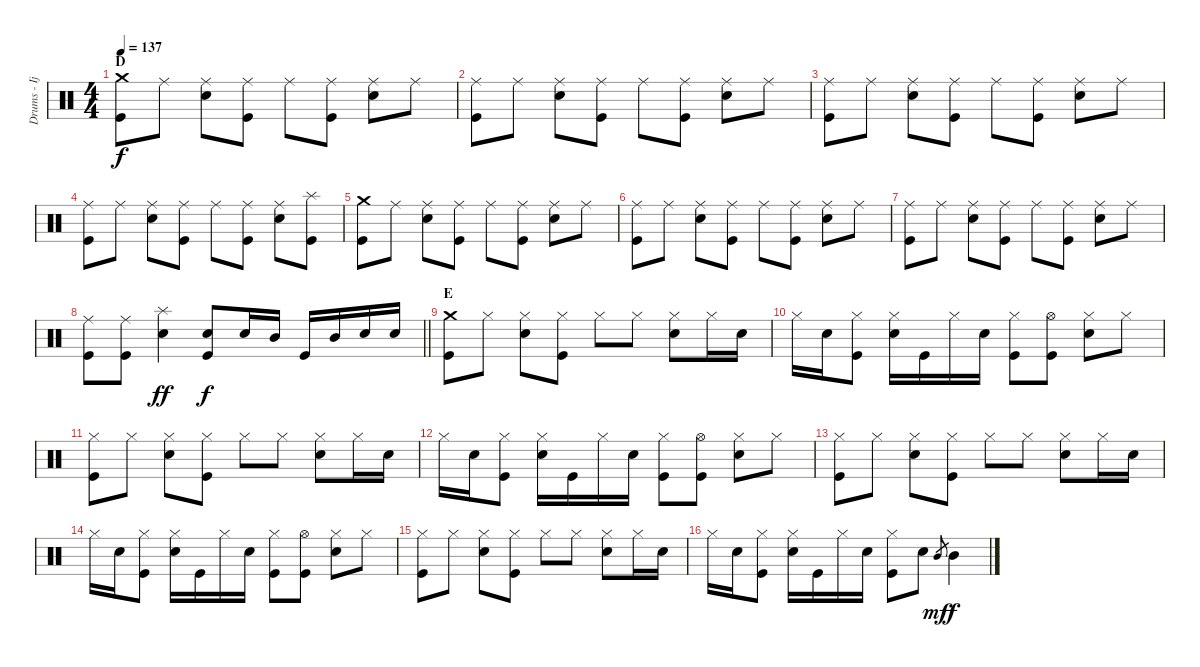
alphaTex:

\track ("Drums - Ijichi" "Drums - Ij") {instrument percussion}
\staff {score}
\articulation defaults
\ts (4 4)
\section ("" "D")
\tempo 137
\clef neutral
\ks c
("Crash medium (hit)" "Kick (hit)").8{dy f} "Ride (middle)".8 ("Ride (middle)" "Electric Snare (hit)").8 ("Ride (middle)" "Kick (hit)").8 "Ride (middle)".8 ("Ride (middle)" "Kick (hit)").8 ("Ride (middle)" "Electric Snare (hit)").8 "Ride (middle)".8 |
("Ride (middle)" "Kick (hit)").8 "Ride (middle)".8 ("Ride (middle)" "Electric Snare (hit)").8 ("Ride (middle)" "Kick (hit)").8 "Ride (middle)".8 ("Ride (middle)" "Kick (hit)").8 ("Ride (middle)" "Electric Snare (hit)").8 "Ride (middle)".8 |
("Ride (middle)" "Kick (hit)").8 "Ride (middle)".8 ("Ride (middle)" "Electric Snare (hit)").8 ("Ride (middle)" "Kick (hit)").8 "Ride (middle)".8 ("Ride (middle)" "Kick (hit)").8 ("Ride (middle)" "Electric Snare (hit)").8 "Ride (middle)".8 |
("Ride (middle)" "Kick (hit)").8 "Ride (middle)".8 ("Ride (middle)" "Electric Snare (hit)").8 ("Ride (middle)" "Kick (hit)").8 "Ride (middle)".8 ("Ride (middle)" "Kick (hit)").8 ("Ride (middle)" "Electric Snare (hit)").8 ("Splash (hit)" "Kick (hit)").8 |
("Crash medium (hit)" "Kick (hit)").8 "Ride (middle)".8 ("Ride (middle)" "Electric Snare (hit)").8 ("Ride (middle)" "Kick (hit)").8 "Ride (middle)".8 ("Ride (middle)" "Kick (hit)").8 ("Ride (middle)" "Electric Snare (hit)").8 "Ride (middle)".8 |
("Ride (middle)" "Kick (hit)").8 "Ride (middle)".8 ("Ride (middle)" "Electric Snare (hit)").8 ("Ride (middle)" "Kick (hit)").8 "Ride (middle)".8 ("Ride (middle)" "Kick (hit)").8 ("Ride (middle)" "Electric Snare (hit)").8 "Ride (middle)".8 |
("Ride (middle)" "Kick (hit)").8 "Ride (middle)".8 ("Ride (middle)" "Electric Snare (hit)").8 ("Ride (middle)" "Kick (hit)").8 "Ride (middle)".8 ("Ride (middle)" "Kick (hit)").8 ("Ride (middle)" "Electric Snare (hit)").8 "Ride (middle)".8 |
\barLineRight lightlight
("Ride (middle)" "Kick (hit)").8 ("Ride (middle)" "Kick (hit)").8 ("Splash (hit)" "Electric Snare (hit)").4{dy ff} ("Electric Snare (hit)" "Kick (hit)").8{dy f} "Electric Snare (hit)".16 "Mid Tom (hit)".16 "Kick (hit)".16 "Mid Tom (hit)".16 "Electric Snare (hit)".16 "Electric Snare (hit)".16 |
\section ("" "E")
("Crash medium (hit)" "Kick (hit)").8 "Hi-Hat (closed)".8 ("Hi-Hat (closed)" "Electric Snare (hit)").8 ("Hi-Hat (closed)" "Kick (hit)").8 "Hi-Hat (closed)".8 "Hi-Hat (closed)".8 ("Hi-Hat (closed)" "Electric Snare (hit)").8 "Hi-Hat (closed)".16 "Electric Snare (hit)".16 |
"Hi-Hat (closed)".16 "Electric Snare (hit)".16 ("Hi-Hat (closed)" "Kick (hit)").8 ("Hi-Hat (closed)" "Electric Snare (hit)").16 "Kick (hit)".16 "Hi-Hat (closed)".16 "Electric Snare (hit)".16 ("Hi-Hat (closed)" "Kick (hit)").8 ("Hi-Hat (open)" "Kick (hit)").8 ("Hi-Hat (closed)" "Electric Snare (hit)").8 "Hi-Hat (closed)".8 |
("Hi-Hat (closed)" "Kick (hit)").8 "Hi-Hat (closed)".8 ("Hi-Hat (closed)" "Electric Snare (hit)").8 ("Hi-Hat (closed)" "Kick (hit)").8 "Hi-Hat (closed)".8 "Hi-Hat (closed)".8 ("Hi-Hat (closed)" "Electric Snare (hit)").8 "Hi-Hat (closed)".16 "Electric Snare (hit)".16 |
"Hi-Hat (closed)".16 "Electric Snare (hit)".16 ("Hi-Hat (closed)" "Kick (hit)").8 ("Hi-Hat (closed)" "Electric Snare (hit)").16 "Kick (hit)".16 "Hi-Hat (closed)".16 "Electric Snare (hit)".16 ("Hi-Hat (closed)" "Kick (hit)").8 ("Hi-Hat (open)" "Kick (hit)").8 ("Hi-Hat (closed)" "Electric Snare (hit)").8 "Hi-Hat (closed)".8 |
("Hi-Hat (closed)" "Kick (hit)").8 "Hi-Hat (closed)".8 ("Hi-Hat (closed)" "Electric Snare (hit)").8 ("Hi-Hat (closed)" "Kick (hit)").8 "Hi-Hat (closed)".8 "Hi-Hat (closed)".8 ("Hi-Hat (closed)" "Electric Snare (hit)").8 "Hi-Hat (closed)".16 "Electric Snare (hit)".16 |
"Hi-Hat (closed)".16 "Electric Snare (hit)".16 ("Hi-Hat (closed)" "Kick (hit)").8 ("Hi-Hat (closed)" "Electric Snare (hit)").16 "Kick (hit)".16 "Hi-Hat (closed)".16 "Electric Snare (hit)".16 ("Hi-Hat (closed)" "Kick (hit)").8 ("Hi-Hat (open)" "Kick (hit)").8 ("Hi-Hat (closed)" "Electric Snare (hit)").8 "Hi-Hat (closed)".8 |
("Hi-Hat (closed)" "Kick (hit)").8 "Hi-Hat (closed)".8 ("Hi-Hat (closed)" "Electric Snare (hit)").8 ("Hi-Hat (closed)" "Kick (hit)").8 "Hi-Hat (closed)".8 "Hi-Hat (closed)".8 ("Hi-Hat (closed)" "Electric Snare (hit)").8 "Hi-Hat (closed)".16 "Electric Snare (hit)".16 |
"Hi-Hat (closed)".16 "Electric Snare (hit)".16 ("Hi-Hat (closed)" "Kick (hit)").8 ("Hi-Hat (closed)" "Electric Snare (hit)").16 "Kick (hit)".16 "Hi-Hat (closed)".16 "Electric Snare (hit)".16 ("Hi-Hat (closed)" "Kick (hit)").8 "Electric Snare (hit)".8 "Mid Tom (hit)".8{gr dy mf} "Mid Tom (hit)".4{dy f}
